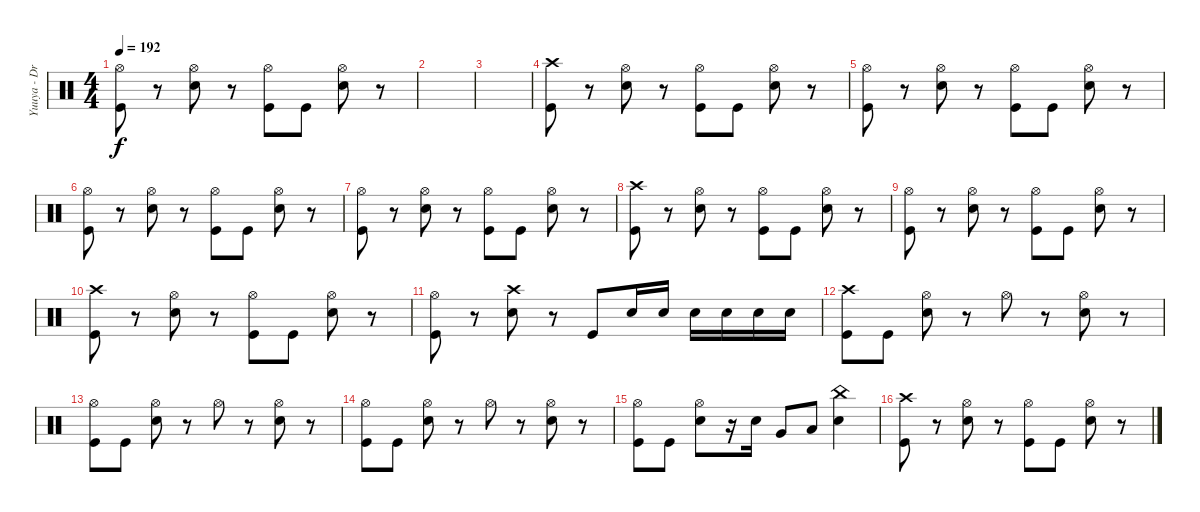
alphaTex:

\track ("Yuuya - Drums" "Yuuya - Dr") {instrument percussion}
\staff {score}
\articulation defaults
\ts (4 4)
\tempo 192
\clef neutral
\ks c
("Kick (hit)" "Hi-Hat (open)").8{dy f} r.8 ("Electric Snare (hit)" "Hi-Hat (open)").8 r.8 ("Kick (hit)" "Hi-Hat (open)").8 "Kick (hit)".8 ("Electric Snare (hit)" "Hi-Hat (open)").8 r.8 |
|
|
("Kick (hit)" "Crash high (hit)").8 r.8 ("Electric Snare (hit)" "Hi-Hat (open)").8 r.8 ("Kick (hit)" "Hi-Hat (open)").8 "Kick (hit)".8 ("Electric Snare (hit)" "Hi-Hat (open)").8 r.8 |
("Kick (hit)" "Hi-Hat (open)").8 r.8 ("Electric Snare (hit)" "Hi-Hat (open)").8 r.8 ("Kick (hit)" "Hi-Hat (open)").8 "Kick (hit)".8 ("Electric Snare (hit)" "Hi-Hat (open)").8 r.8 |
("Kick (hit)" "Hi-Hat (open)").8 r.8 ("Electric Snare (hit)" "Hi-Hat (open)").8 r.8 ("Kick (hit)" "Hi-Hat (open)").8 "Kick (hit)".8 ("Electric Snare (hit)" "Hi-Hat (open)").8 r.8 |
("Kick (hit)" "Hi-Hat (open)").8 r.8 ("Electric Snare (hit)" "Hi-Hat (open)").8 r.8 ("Kick (hit)" "Hi-Hat (open)").8 "Kick (hit)".8 ("Electric Snare (hit)" "Hi-Hat (open)").8 r.8 |
("Kick (hit)" "Crash high (hit)").8 r.8 ("Electric Snare (hit)" "Hi-Hat (open)").8 r.8 ("Kick (hit)" "Hi-Hat (open)").8 "Kick (hit)".8 ("Electric Snare (hit)" "Hi-Hat (open)").8 r.8 |
("Kick (hit)" "Hi-Hat (open)").8 r.8 ("Electric Snare (hit)" "Hi-Hat (open)").8 r.8 ("Kick (hit)" "Hi-Hat (open)").8 "Kick (hit)".8 ("Electric Snare (hit)" "Hi-Hat (open)").8 r.8 |
("Kick (hit)" "Crash high (hit)").8 r.8 ("Electric Snare (hit)" "Hi-Hat (open)").8 r.8 ("Kick (hit)" "Hi-Hat (open)").8 "Kick (hit)".8 ("Electric Snare (hit)" "Hi-Hat (open)").8 r.8 |
("Kick (hit)" "Hi-Hat (open)").8 r.8 ("Electric Snare (hit)" "Crash high (hit)").8 r.8 "Kick (hit)".8 "Electric Snare (hit)".16 "Electric Snare (hit)".16 "Electric Snare (hit)".16 "Electric Snare (hit)".16 "Electric Snare (hit)".16 "Electric Snare (hit)".16 |
("Kick (hit)" "Crash high (hit)").8 "Kick (hit)".8 ("Electric Snare (hit)" "Hi-Hat (open)").8 r.8 "Hi-Hat (open)".8 r.8 ("Electric Snare (hit)" "Hi-Hat (open)").8 r.8 |
("Kick (hit)" "Hi-Hat (open)").8 "Kick (hit)".8 ("Electric Snare (hit)" "Hi-Hat (open)").8 r.8 "Hi-Hat (open)".8 r.8 ("Electric Snare (hit)" "Hi-Hat (open)").8 r.8 |
("Kick (hit)" "Hi-Hat (open)").8 "Kick (hit)".8 ("Electric Snare (hit)" "Hi-Hat (open)").8 r.8 "Hi-Hat (open)".8 r.8 ("Electric Snare (hit)" "Hi-Hat (open)").8 r.8 |
("Kick (hit)" "Hi-Hat (open)").8 "Kick (hit)".8 ("Electric Snare (hit)" "Hi-Hat (open)").8 r.16 "Electric Snare (hit)".16 "Very Low Tom (hit)".8 "Low Floor Tom (hit)".8 ("Electric Snare (hit)" "China (hit)").4 |
("Kick (hit)" "Crash high (hit)").8 r.8 ("Electric Snare (hit)" "Hi-Hat (open)").8 r.8 ("Kick (hit)" "Hi-Hat (open)").8 "Kick (hit)".8 ("Electric Snare (hit)" "Hi-Hat (open)").8 r.8
